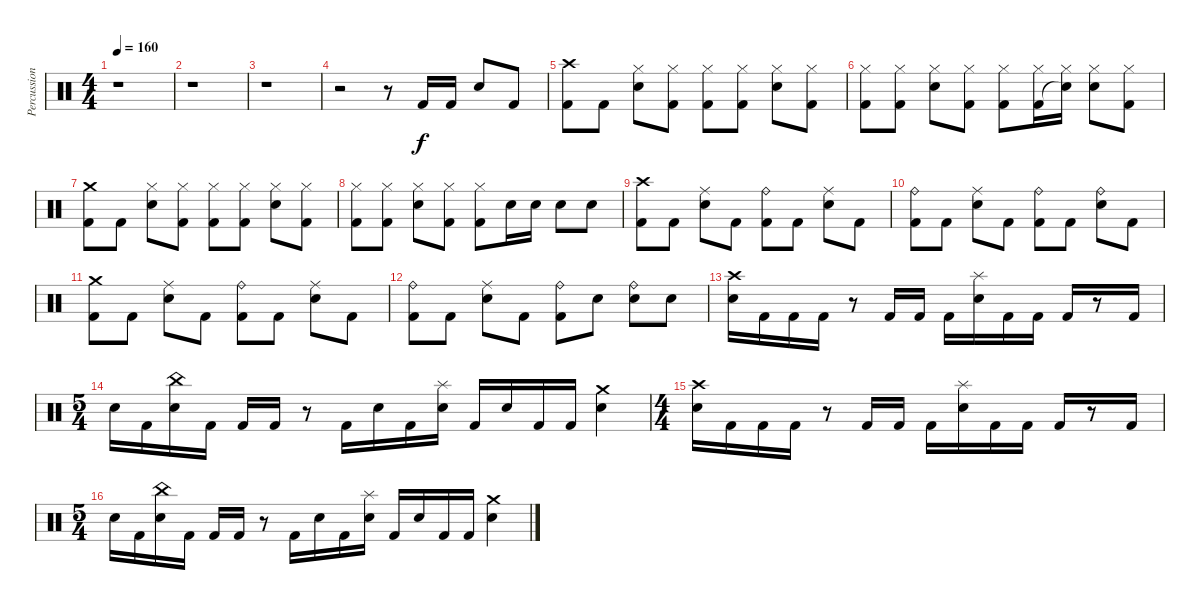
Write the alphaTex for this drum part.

\track ("Percussion" "Percussion") {instrument percussion}
\staff {score}
\articulation defaults
\ts (4 4)
\tempo 160
\clef neutral
\ks c
r.1{dy f} |
r.1 |
r.1 |
r.2 r.8 "Kick (hit) 2".16 "Kick (hit) 2".16 "Snare (hit) 2".8 "Kick (hit) 2".8 |
("Crash high (hit)" "Kick (hit) 2").8 "Kick (hit) 2".8 ("Hi-Hat (closed)" "Snare (hit) 2").8 ("Hi-Hat (closed)" "Kick (hit) 2").8 ("Hi-Hat (closed)" "Kick (hit) 2").8 ("Hi-Hat (closed)" "Kick (hit) 2").8 ("Hi-Hat (closed)" "Snare (hit) 2").8 ("Hi-Hat (closed)" "Kick (hit) 2").8 |
("Hi-Hat (closed)" "Kick (hit) 2").8 ("Hi-Hat (closed)" "Kick (hit) 2").8 ("Hi-Hat (closed)" "Snare (hit) 2").8 ("Hi-Hat (closed)" "Kick (hit) 2").8 ("Hi-Hat (closed)" "Kick (hit) 2").8 ("Hi-Hat (closed)" "Kick (hit) 2").16 ("Hi-Hat (closed)" "Snare (hit)"{t}).16 ("Hi-Hat (closed)" "Snare (hit) 2").8 ("Hi-Hat (closed)" "Kick (hit) 2").8 |
("Crash medium (hit)" "Kick (hit) 2").8 "Kick (hit) 2".8 ("Hi-Hat (closed)" "Snare (hit) 2").8 ("Hi-Hat (closed)" "Kick (hit) 2").8 ("Hi-Hat (closed)" "Kick (hit) 2").8 ("Hi-Hat (closed)" "Kick (hit) 2").8 ("Hi-Hat (closed)" "Snare (hit) 2").8 ("Hi-Hat (closed)" "Kick (hit) 2").8 |
("Hi-Hat (closed)" "Kick (hit) 2").8 ("Hi-Hat (closed)" "Kick (hit) 2").8 ("Hi-Hat (closed)" "Snare (hit) 2").8 ("Hi-Hat (closed)" "Kick (hit) 2").8 ("Hi-Hat (closed)" "Kick (hit) 2").8 "Snare (hit) 2".16 "Snare (hit) 2".16 "Snare (hit) 2".8 "Snare (hit) 2".8 |
("Crash high (hit)" "Kick (hit) 2").8 "Kick (hit) 2".8 ("Ride (middle)" "Snare (hit) 2").8 "Kick (hit) 2".8 ("Ride (bell)" "Kick (hit) 2").8 "Kick (hit) 2".8 ("Ride (middle)" "Snare (hit) 2").8 "Kick (hit) 2".8 |
("Ride (bell)" "Kick (hit) 2").8 "Kick (hit) 2".8 ("Ride (middle)" "Snare (hit) 2").8 "Kick (hit) 2".8 ("Ride (bell)" "Kick (hit) 2").8 "Kick (hit) 2".8 ("Ride (bell)" "Snare (hit) 2").8 "Kick (hit) 2".8 |
("Crash medium (hit)" "Kick (hit) 2").8 "Kick (hit) 2".8 ("Ride (middle)" "Snare (hit) 2").8 "Kick (hit) 2".8 ("Ride (bell)" "Kick (hit) 2").8 "Kick (hit) 2".8 ("Ride (middle)" "Snare (hit) 2").8 "Kick (hit) 2".8 |
("Ride (bell)" "Kick (hit) 2").8 "Kick (hit) 2".8 ("Ride (middle)" "Snare (hit) 2").8 "Kick (hit) 2".8 ("Ride (bell)" "Kick (hit) 2").8 "Snare (hit) 2".8 ("Ride (bell)" "Snare (hit) 2").8 "Snare (hit) 2".8 |
("Crash high (hit)" "Snare (hit) 2").16 "Kick (hit) 2".16 "Kick (hit) 2".16 "Kick (hit) 2".16 r.8 "Kick (hit) 2".16 "Kick (hit) 2".16 "Kick (hit) 2".16 ("Splash (hit)" "Snare (hit) 2").16 "Kick (hit) 2".16 "Kick (hit) 2".16 "Kick (hit) 2".16 r.8 "Kick (hit) 2".16 |
\ts (5 4)
"Snare (hit) 2".16 "Kick (hit) 2".16 ("China (hit)" "Snare (hit) 2").16 "Kick (hit) 2".16 "Kick (hit) 2".16 "Kick (hit) 2".16 r.8 "Kick (hit) 2".16 "Snare (hit) 2".16 "Kick (hit) 2".16 ("Splash (hit)" "Snare (hit) 2").16 "Kick (hit) 2".16 "Snare (hit) 2".16 "Kick (hit) 2".16 "Kick (hit) 2".16 ("Crash medium (hit)" "Snare (hit) 2").4 |
\ts (4 4)
("Crash high (hit)" "Snare (hit) 2").16 "Kick (hit) 2".16 "Kick (hit) 2".16 "Kick (hit) 2".16 r.8 "Kick (hit) 2".16 "Kick (hit) 2".16 "Kick (hit) 2".16 ("Splash (hit)" "Snare (hit) 2").16 "Kick (hit) 2".16 "Kick (hit) 2".16 "Kick (hit) 2".16 r.8 "Kick (hit) 2".16 |
\ts (5 4)
"Snare (hit) 2".16 "Kick (hit) 2".16 ("China (hit)" "Snare (hit) 2").16 "Kick (hit) 2".16 "Kick (hit) 2".16 "Kick (hit) 2".16 r.8 "Kick (hit) 2".16 "Snare (hit) 2".16 "Kick (hit) 2".16 ("Splash (hit)" "Snare (hit) 2").16 "Kick (hit) 2".16 "Snare (hit) 2".16 "Kick (hit) 2".16 "Kick (hit) 2".16 ("Crash medium (hit)" "Snare (hit) 2").4
